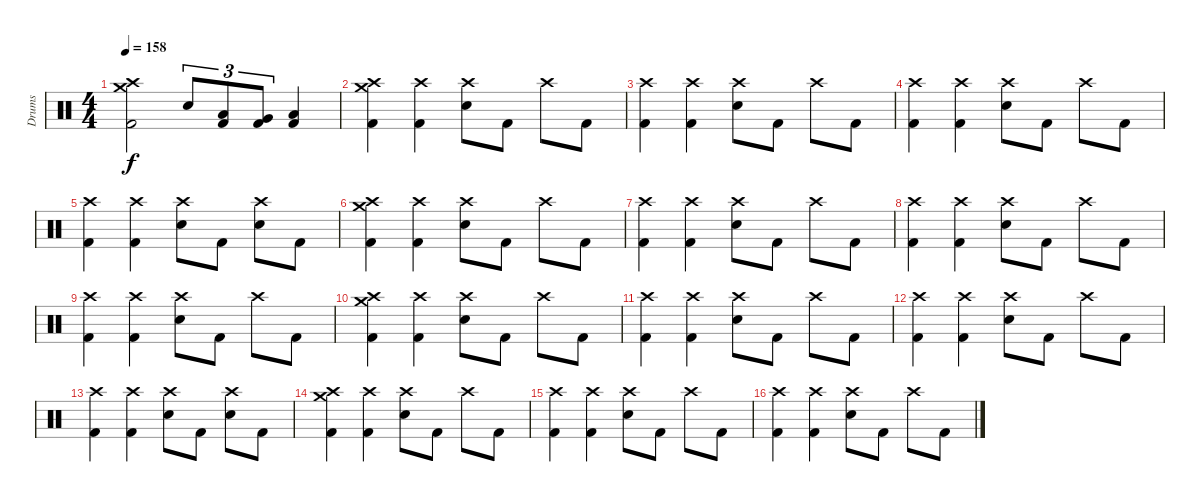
\track ("Drums" "Drums") {instrument percussion}
\staff {score}
\articulation defaults
\ts (4 4)
\tempo 158
\clef neutral
\ks c
("Crash medium (hit)" "Crash high (hit)" "Kick (hit) 2").2{dy f} "Electric Snare (hit)".8{tu (3 2)} ("Low Tom (hit)" "Kick (hit) 2").8{tu (3 2)} ("Very Low Tom (hit)" "Kick (hit) 2").8{tu (3 2)} ("Low Floor Tom (hit)" "Kick (hit) 2").4 |
("Crash medium (hit)" "Crash high (hit)" "Kick (hit) 2").4 ("Crash high (hit)" "Kick (hit) 2").4 ("Crash high (hit)" "Electric Snare (hit)").8 "Kick (hit) 2".8 "Crash high (hit)".8 "Kick (hit) 2".8 |
("Crash high (hit)" "Kick (hit) 2").4 ("Crash high (hit)" "Kick (hit) 2").4 ("Crash high (hit)" "Electric Snare (hit)").8 "Kick (hit) 2".8 "Crash high (hit)".8 "Kick (hit) 2".8 |
("Crash high (hit)" "Kick (hit) 2").4 ("Crash high (hit)" "Kick (hit) 2").4 ("Crash high (hit)" "Electric Snare (hit)").8 "Kick (hit) 2".8 "Crash high (hit)".8 "Kick (hit) 2".8 |
("Crash high (hit)" "Kick (hit) 2").4 ("Crash high (hit)" "Kick (hit) 2").4 ("Crash high (hit)" "Electric Snare (hit)").8 "Kick (hit) 2".8 ("Crash high (hit)" "Electric Snare (hit)").8 "Kick (hit) 2".8 |
("Crash medium (hit)" "Crash high (hit)" "Kick (hit) 2").4 ("Crash high (hit)" "Kick (hit) 2").4 ("Crash high (hit)" "Electric Snare (hit)").8 "Kick (hit) 2".8 "Crash high (hit)".8 "Kick (hit) 2".8 |
("Crash high (hit)" "Kick (hit) 2").4 ("Crash high (hit)" "Kick (hit) 2").4 ("Crash high (hit)" "Electric Snare (hit)").8 "Kick (hit) 2".8 "Crash high (hit)".8 "Kick (hit) 2".8 |
("Crash high (hit)" "Kick (hit) 2").4 ("Crash high (hit)" "Kick (hit) 2").4 ("Crash high (hit)" "Electric Snare (hit)").8 "Kick (hit) 2".8 "Crash high (hit)".8 "Kick (hit) 2".8 |
("Crash high (hit)" "Kick (hit) 2").4 ("Crash high (hit)" "Kick (hit) 2").4 ("Crash high (hit)" "Electric Snare (hit)").8 "Kick (hit) 2".8 "Crash high (hit)".8 "Kick (hit) 2".8 |
("Crash medium (hit)" "Crash high (hit)" "Kick (hit) 2").4 ("Crash high (hit)" "Kick (hit) 2").4 ("Crash high (hit)" "Electric Snare (hit)").8 "Kick (hit) 2".8 "Crash high (hit)".8 "Kick (hit) 2".8 |
("Crash high (hit)" "Kick (hit) 2").4 ("Crash high (hit)" "Kick (hit) 2").4 ("Crash high (hit)" "Electric Snare (hit)").8 "Kick (hit) 2".8 "Crash high (hit)".8 "Kick (hit) 2".8 |
("Crash high (hit)" "Kick (hit) 2").4 ("Crash high (hit)" "Kick (hit) 2").4 ("Crash high (hit)" "Electric Snare (hit)").8 "Kick (hit) 2".8 "Crash high (hit)".8 "Kick (hit) 2".8 |
("Crash high (hit)" "Kick (hit) 2").4 ("Crash high (hit)" "Kick (hit) 2").4 ("Crash high (hit)" "Electric Snare (hit)").8 "Kick (hit) 2".8 ("Crash high (hit)" "Electric Snare (hit)").8 "Kick (hit) 2".8 |
("Crash medium (hit)" "Crash high (hit)" "Kick (hit) 2").4 ("Crash high (hit)" "Kick (hit) 2").4 ("Crash high (hit)" "Electric Snare (hit)").8 "Kick (hit) 2".8 "Crash high (hit)".8 "Kick (hit) 2".8 |
("Crash high (hit)" "Kick (hit) 2").4 ("Crash high (hit)" "Kick (hit) 2").4 ("Crash high (hit)" "Electric Snare (hit)").8 "Kick (hit) 2".8 "Crash high (hit)".8 "Kick (hit) 2".8 |
("Crash high (hit)" "Kick (hit) 2").4 ("Crash high (hit)" "Kick (hit) 2").4 ("Crash high (hit)" "Electric Snare (hit)").8 "Kick (hit) 2".8 "Crash high (hit)".8 "Kick (hit) 2".8
